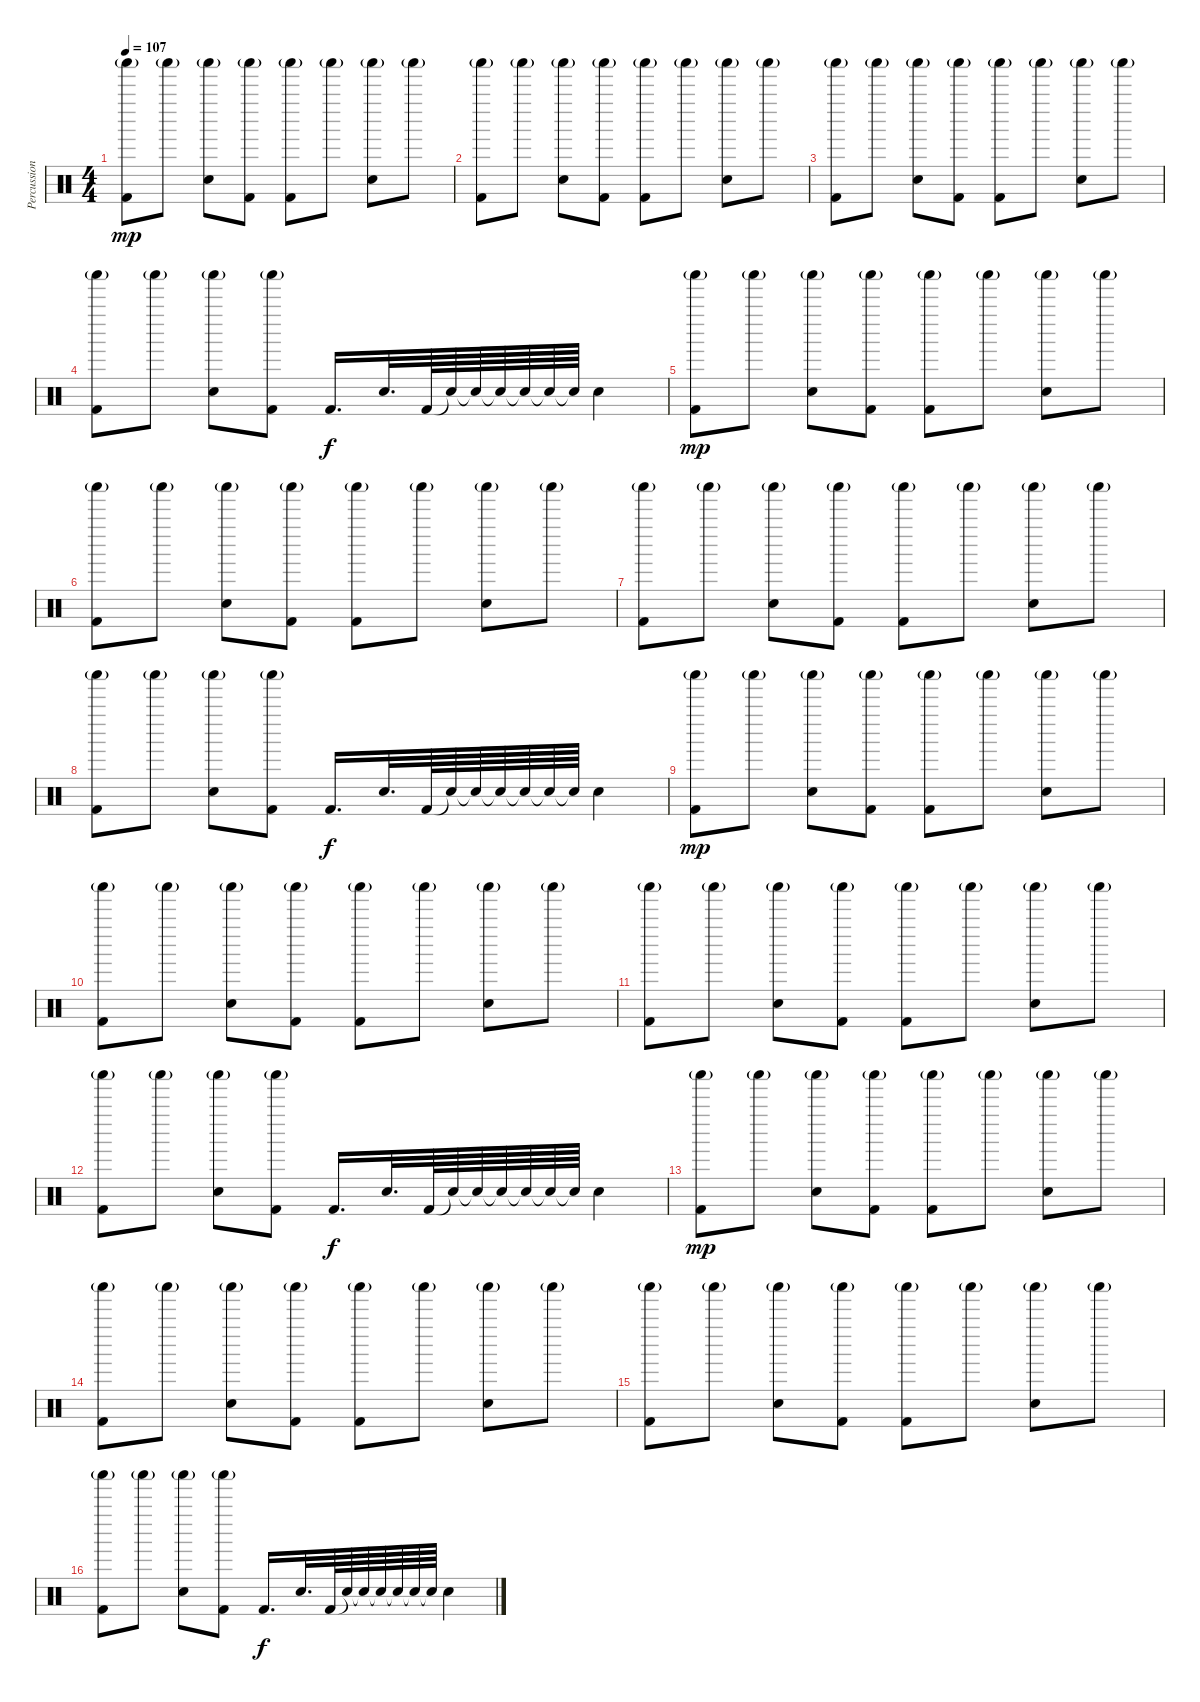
\track ("Percussion" "Percussion") {instrument percussion}
\staff {score}
\articulation defaults
\ts (4 4)
\tempo 107
\clef neutral
\ks c
("Shaker (hit)"{g} "Kick (hit) 2").8{dy mp} "Shaker (hit)"{g}.8 ("Shaker (hit)"{g} "Electric Snare (hit)").8 ("Shaker (hit)"{g} "Kick (hit) 2").8 ("Shaker (hit)"{g} "Kick (hit) 2").8 "Shaker (hit)"{g}.8 ("Shaker (hit)"{g} "Electric Snare (hit)").8 "Shaker (hit)"{g}.8 |
("Shaker (hit)"{g} "Kick (hit) 2").8 "Shaker (hit)"{g}.8 ("Shaker (hit)"{g} "Electric Snare (hit)").8 ("Shaker (hit)"{g} "Kick (hit) 2").8 ("Shaker (hit)"{g} "Kick (hit) 2").8 "Shaker (hit)"{g}.8 ("Shaker (hit)"{g} "Electric Snare (hit)").8 "Shaker (hit)"{g}.8 |
("Shaker (hit)"{g} "Kick (hit) 2").8 "Shaker (hit)"{g}.8 ("Shaker (hit)"{g} "Electric Snare (hit)").8 ("Shaker (hit)"{g} "Kick (hit) 2").8 ("Shaker (hit)"{g} "Kick (hit) 2").8 "Shaker (hit)"{g}.8 ("Shaker (hit)"{g} "Electric Snare (hit)").8 "Shaker (hit)"{g}.8 |
("Shaker (hit)"{g} "Kick (hit) 2").8 "Shaker (hit)"{g}.8 ("Shaker (hit)"{g} "Electric Snare (hit)").8 ("Shaker (hit)"{g} "Kick (hit) 2").8 "Kick (hit) 2".16{d dy f} "Electric Snare (hit)".32{d} "Kick (hit) 2".64 "Snare (hit)"{t}.64 "Snare (hit)"{t}.64 "Snare (hit)"{t}.64 "Snare (hit)"{t}.64 "Snare (hit)"{t}.64 "Snare (hit)"{t}.64 "Electric Snare (hit)".4 |
("Shaker (hit)"{g} "Kick (hit) 2").8{dy mp} "Shaker (hit)"{g}.8 ("Shaker (hit)"{g} "Electric Snare (hit)").8 ("Shaker (hit)"{g} "Kick (hit) 2").8 ("Shaker (hit)"{g} "Kick (hit) 2").8 "Shaker (hit)"{g}.8 ("Shaker (hit)"{g} "Electric Snare (hit)").8 "Shaker (hit)"{g}.8 |
("Shaker (hit)"{g} "Kick (hit) 2").8 "Shaker (hit)"{g}.8 ("Shaker (hit)"{g} "Electric Snare (hit)").8 ("Shaker (hit)"{g} "Kick (hit) 2").8 ("Shaker (hit)"{g} "Kick (hit) 2").8 "Shaker (hit)"{g}.8 ("Shaker (hit)"{g} "Electric Snare (hit)").8 "Shaker (hit)"{g}.8 |
("Shaker (hit)"{g} "Kick (hit) 2").8 "Shaker (hit)"{g}.8 ("Shaker (hit)"{g} "Electric Snare (hit)").8 ("Shaker (hit)"{g} "Kick (hit) 2").8 ("Shaker (hit)"{g} "Kick (hit) 2").8 "Shaker (hit)"{g}.8 ("Shaker (hit)"{g} "Electric Snare (hit)").8 "Shaker (hit)"{g}.8 |
("Shaker (hit)"{g} "Kick (hit) 2").8 "Shaker (hit)"{g}.8 ("Shaker (hit)"{g} "Electric Snare (hit)").8 ("Shaker (hit)"{g} "Kick (hit) 2").8 "Kick (hit) 2".16{d dy f} "Electric Snare (hit)".32{d} "Kick (hit) 2".64 "Snare (hit)"{t}.64 "Snare (hit)"{t}.64 "Snare (hit)"{t}.64 "Snare (hit)"{t}.64 "Snare (hit)"{t}.64 "Snare (hit)"{t}.64 "Electric Snare (hit)".4 |
("Shaker (hit)"{g} "Kick (hit) 2").8{dy mp} "Shaker (hit)"{g}.8 ("Shaker (hit)"{g} "Electric Snare (hit)").8 ("Shaker (hit)"{g} "Kick (hit) 2").8 ("Shaker (hit)"{g} "Kick (hit) 2").8 "Shaker (hit)"{g}.8 ("Shaker (hit)"{g} "Electric Snare (hit)").8 "Shaker (hit)"{g}.8 |
("Shaker (hit)"{g} "Kick (hit) 2").8 "Shaker (hit)"{g}.8 ("Shaker (hit)"{g} "Electric Snare (hit)").8 ("Shaker (hit)"{g} "Kick (hit) 2").8 ("Shaker (hit)"{g} "Kick (hit) 2").8 "Shaker (hit)"{g}.8 ("Shaker (hit)"{g} "Electric Snare (hit)").8 "Shaker (hit)"{g}.8 |
("Shaker (hit)"{g} "Kick (hit) 2").8 "Shaker (hit)"{g}.8 ("Shaker (hit)"{g} "Electric Snare (hit)").8 ("Shaker (hit)"{g} "Kick (hit) 2").8 ("Shaker (hit)"{g} "Kick (hit) 2").8 "Shaker (hit)"{g}.8 ("Shaker (hit)"{g} "Electric Snare (hit)").8 "Shaker (hit)"{g}.8 |
("Shaker (hit)"{g} "Kick (hit) 2").8 "Shaker (hit)"{g}.8 ("Shaker (hit)"{g} "Electric Snare (hit)").8 ("Shaker (hit)"{g} "Kick (hit) 2").8 "Kick (hit) 2".16{d dy f} "Electric Snare (hit)".32{d} "Kick (hit) 2".64 "Snare (hit)"{t}.64 "Snare (hit)"{t}.64 "Snare (hit)"{t}.64 "Snare (hit)"{t}.64 "Snare (hit)"{t}.64 "Snare (hit)"{t}.64 "Electric Snare (hit)".4 |
("Shaker (hit)"{g} "Kick (hit) 2").8{dy mp} "Shaker (hit)"{g}.8 ("Shaker (hit)"{g} "Electric Snare (hit)").8 ("Shaker (hit)"{g} "Kick (hit) 2").8 ("Shaker (hit)"{g} "Kick (hit) 2").8 "Shaker (hit)"{g}.8 ("Shaker (hit)"{g} "Electric Snare (hit)").8 "Shaker (hit)"{g}.8 |
("Shaker (hit)"{g} "Kick (hit) 2").8 "Shaker (hit)"{g}.8 ("Shaker (hit)"{g} "Electric Snare (hit)").8 ("Shaker (hit)"{g} "Kick (hit) 2").8 ("Shaker (hit)"{g} "Kick (hit) 2").8 "Shaker (hit)"{g}.8 ("Shaker (hit)"{g} "Electric Snare (hit)").8 "Shaker (hit)"{g}.8 |
("Shaker (hit)"{g} "Kick (hit) 2").8 "Shaker (hit)"{g}.8 ("Shaker (hit)"{g} "Electric Snare (hit)").8 ("Shaker (hit)"{g} "Kick (hit) 2").8 ("Shaker (hit)"{g} "Kick (hit) 2").8 "Shaker (hit)"{g}.8 ("Shaker (hit)"{g} "Electric Snare (hit)").8 "Shaker (hit)"{g}.8 |
("Shaker (hit)"{g} "Kick (hit) 2").8 "Shaker (hit)"{g}.8 ("Shaker (hit)"{g} "Electric Snare (hit)").8 ("Shaker (hit)"{g} "Kick (hit) 2").8 "Kick (hit) 2".16{d dy f} "Electric Snare (hit)".32{d} "Kick (hit) 2".64 "Snare (hit)"{t}.64 "Snare (hit)"{t}.64 "Snare (hit)"{t}.64 "Snare (hit)"{t}.64 "Snare (hit)"{t}.64 "Snare (hit)"{t}.64 "Electric Snare (hit)".4
